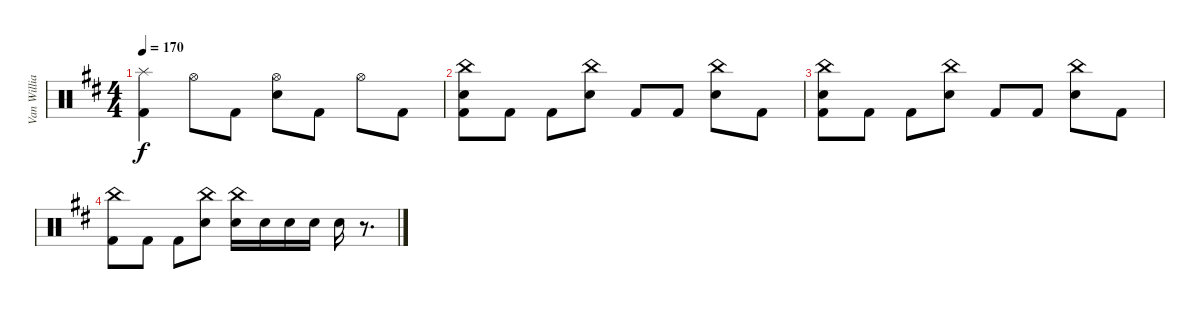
\track ("Van Williams" "Van Willia") {instrument percussion}
\staff {score}
\articulation defaults
\ts (4 4)
\tempo 170
\clef neutral
\ks d
("Splash (hit)" "Kick (hit) 2").4{dy f} "Hi-Hat (open)".8 "Kick (hit) 2".8 ("Hi-Hat (open)" "Electric Snare (hit)").8 "Kick (hit) 2".8 "Hi-Hat (open)".8 "Kick (hit) 2".8 |
("China (hit)" "Electric Snare (hit)" "Kick (hit) 2").8 "Kick (hit) 2".8 "Kick (hit) 2".8 ("China (hit)" "Electric Snare (hit)").8 "Kick (hit) 2".8 "Kick (hit) 2".8 ("China (hit)" "Electric Snare (hit)").8 "Kick (hit) 2".8 |
("China (hit)" "Electric Snare (hit)" "Kick (hit) 2").8 "Kick (hit) 2".8 "Kick (hit) 2".8 ("China (hit)" "Electric Snare (hit)").8 "Kick (hit) 2".8 "Kick (hit) 2".8 ("China (hit)" "Electric Snare (hit)").8 "Kick (hit) 2".8 |
("China (hit)" "Kick (hit) 2").8 "Kick (hit) 2".8 "Kick (hit) 2".8 ("China (hit)" "Electric Snare (hit)").8 ("China (hit)" "Electric Snare (hit)").16 "Electric Snare (hit)".16 "Electric Snare (hit)".16 "Electric Snare (hit)".16 "Electric Snare (hit)".16 r.8{d}
